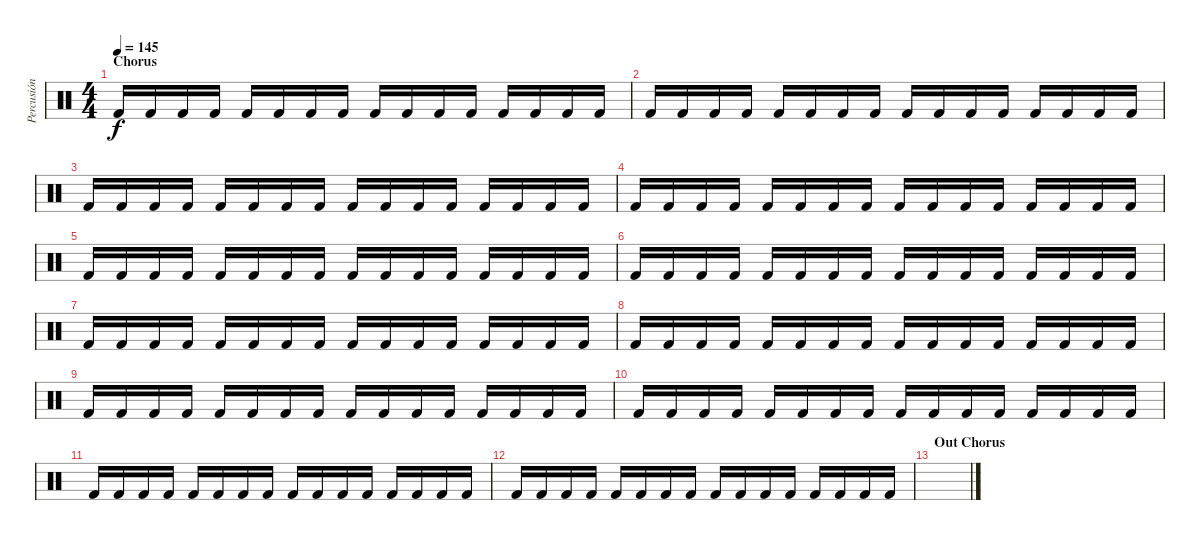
\track ("Percusión" "Percusión") {instrument percussion}
\staff {score}
\articulation defaults
\ts (4 4)
\section ("" "Chorus")
\tempo 145
\clef neutral
\ks c "Kick (hit) 2".16{dy f} "Kick (hit) 2".16 "Kick (hit) 2".16 "Kick (hit) 2".16 "Kick (hit) 2".16 "Kick (hit) 2".16 "Kick (hit) 2".16 "Kick (hit) 2".16 "Kick (hit) 2".16 "Kick (hit) 2".16 "Kick (hit) 2".16 "Kick (hit) 2".16 "Kick (hit) 2".16 "Kick (hit) 2".16 "Kick (hit) 2".16 "Kick (hit) 2".16
|
"Kick (hit) 2".16 "Kick (hit) 2".16 "Kick (hit) 2".16 "Kick (hit) 2".16 "Kick (hit) 2".16 "Kick (hit) 2".16 "Kick (hit) 2".16 "Kick (hit) 2".16 "Kick (hit) 2".16 "Kick (hit) 2".16 "Kick (hit) 2".16 "Kick (hit) 2".16 "Kick (hit) 2".16 "Kick (hit) 2".16 "Kick (hit) 2".16 "Kick (hit) 2".16 |
"Kick (hit) 2".16 "Kick (hit) 2".16 "Kick (hit) 2".16 "Kick (hit) 2".16 "Kick (hit) 2".16 "Kick (hit) 2".16 "Kick (hit) 2".16 "Kick (hit) 2".16 "Kick (hit) 2".16 "Kick (hit) 2".16 "Kick (hit) 2".16 "Kick (hit) 2".16 "Kick (hit) 2".16 "Kick (hit) 2".16 "Kick (hit) 2".16 "Kick (hit) 2".16 |
"Kick (hit) 2".16 "Kick (hit) 2".16 "Kick (hit) 2".16 "Kick (hit) 2".16 "Kick (hit) 2".16 "Kick (hit) 2".16 "Kick (hit) 2".16 "Kick (hit) 2".16 "Kick (hit) 2".16 "Kick (hit) 2".16 "Kick (hit) 2".16 "Kick (hit) 2".16 "Kick (hit) 2".16 "Kick (hit) 2".16 "Kick (hit) 2".16 "Kick (hit) 2".16 |
"Kick (hit) 2".16 "Kick (hit) 2".16 "Kick (hit) 2".16 "Kick (hit) 2".16 "Kick (hit) 2".16 "Kick (hit) 2".16 "Kick (hit) 2".16 "Kick (hit) 2".16 "Kick (hit) 2".16 "Kick (hit) 2".16 "Kick (hit) 2".16 "Kick (hit) 2".16 "Kick (hit) 2".16 "Kick (hit) 2".16 "Kick (hit) 2".16 "Kick (hit) 2".16 |
"Kick (hit) 2".16 "Kick (hit) 2".16 "Kick (hit) 2".16 "Kick (hit) 2".16 "Kick (hit) 2".16 "Kick (hit) 2".16 "Kick (hit) 2".16 "Kick (hit) 2".16 "Kick (hit) 2".16 "Kick (hit) 2".16 "Kick (hit) 2".16 "Kick (hit) 2".16 "Kick (hit) 2".16 "Kick (hit) 2".16 "Kick (hit) 2".16 "Kick (hit) 2".16 |
"Kick (hit) 2".16 "Kick (hit) 2".16 "Kick (hit) 2".16 "Kick (hit) 2".16 "Kick (hit) 2".16 "Kick (hit) 2".16 "Kick (hit) 2".16 "Kick (hit) 2".16 "Kick (hit) 2".16 "Kick (hit) 2".16 "Kick (hit) 2".16 "Kick (hit) 2".16 "Kick (hit) 2".16 "Kick (hit) 2".16 "Kick (hit) 2".16 "Kick (hit) 2".16 |
"Kick (hit) 2".16 "Kick (hit) 2".16 "Kick (hit) 2".16 "Kick (hit) 2".16 "Kick (hit) 2".16 "Kick (hit) 2".16 "Kick (hit) 2".16 "Kick (hit) 2".16 "Kick (hit) 2".16 "Kick (hit) 2".16 "Kick (hit) 2".16 "Kick (hit) 2".16 "Kick (hit) 2".16 "Kick (hit) 2".16 "Kick (hit) 2".16 "Kick (hit) 2".16 |
"Kick (hit) 2".16 "Kick (hit) 2".16 "Kick (hit) 2".16 "Kick (hit) 2".16 "Kick (hit) 2".16 "Kick (hit) 2".16 "Kick (hit) 2".16 "Kick (hit) 2".16 "Kick (hit) 2".16 "Kick (hit) 2".16 "Kick (hit) 2".16 "Kick (hit) 2".16 "Kick (hit) 2".16 "Kick (hit) 2".16 "Kick (hit) 2".16 "Kick (hit) 2".16 |
"Kick (hit) 2".16 "Kick (hit) 2".16 "Kick (hit) 2".16 "Kick (hit) 2".16 "Kick (hit) 2".16 "Kick (hit) 2".16 "Kick (hit) 2".16 "Kick (hit) 2".16 "Kick (hit) 2".16 "Kick (hit) 2".16 "Kick (hit) 2".16 "Kick (hit) 2".16 "Kick (hit) 2".16 "Kick (hit) 2".16 "Kick (hit) 2".16 "Kick (hit) 2".16 |
"Kick (hit) 2".16 "Kick (hit) 2".16 "Kick (hit) 2".16 "Kick (hit) 2".16 "Kick (hit) 2".16 "Kick (hit) 2".16 "Kick (hit) 2".16 "Kick (hit) 2".16 "Kick (hit) 2".16 "Kick (hit) 2".16 "Kick (hit) 2".16 "Kick (hit) 2".16 "Kick (hit) 2".16 "Kick (hit) 2".16 "Kick (hit) 2".16 "Kick (hit) 2".16 |
"Kick (hit) 2".16 "Kick (hit) 2".16 "Kick (hit) 2".16 "Kick (hit) 2".16 "Kick (hit) 2".16 "Kick (hit) 2".16 "Kick (hit) 2".16 "Kick (hit) 2".16 "Kick (hit) 2".16 "Kick (hit) 2".16 "Kick (hit) 2".16 "Kick (hit) 2".16 "Kick (hit) 2".16 "Kick (hit) 2".16 "Kick (hit) 2".16 "Kick (hit) 2".16 |
\section ("" "Out Chorus")
